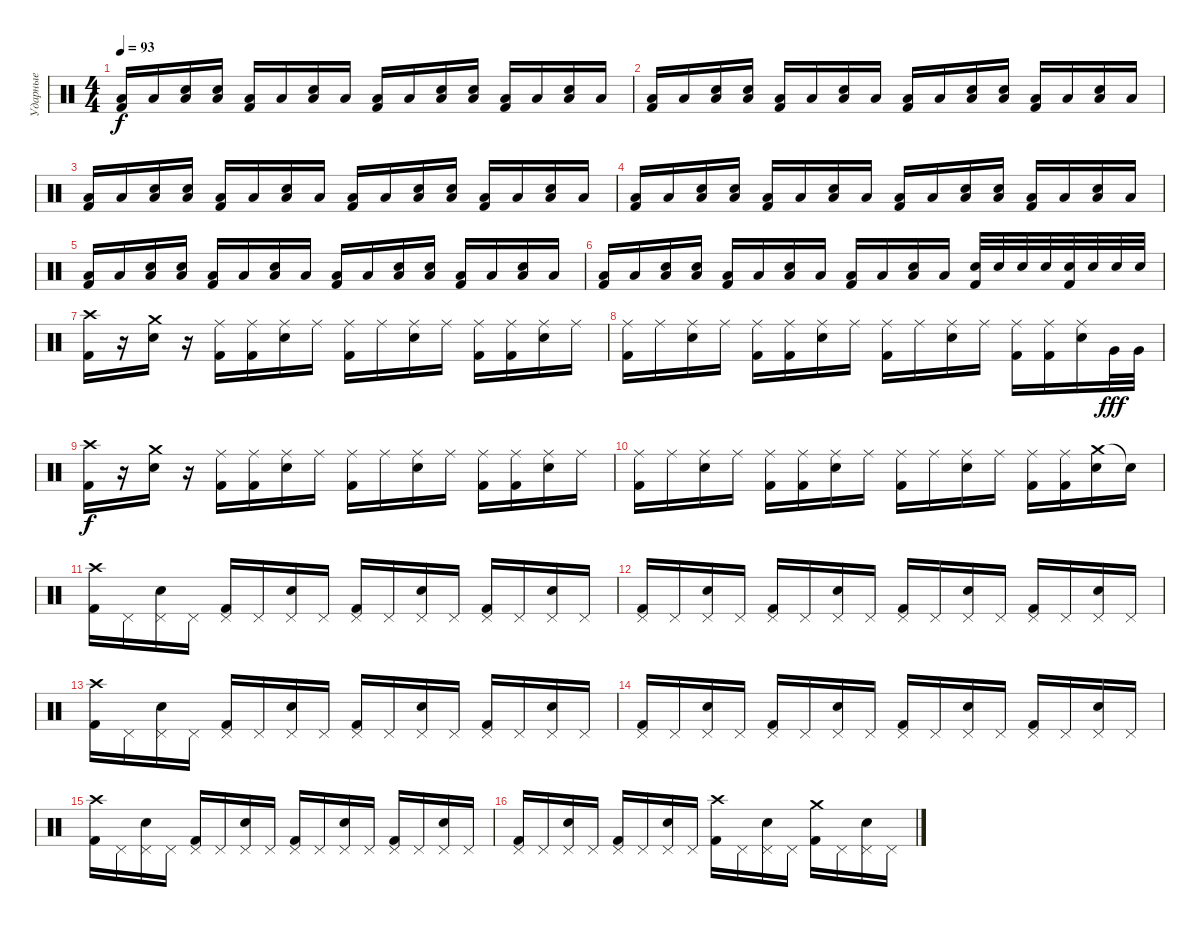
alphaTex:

\track ("Ударные" "Ударные") {instrument percussion}
\staff {score}
\articulation defaults
\ts (4 4)
\tempo 93
\clef neutral
\ks c
("Low Floor Tom (hit)" "Kick (hit) 2").16{dy f} "Low Floor Tom (hit)".16 ("Low Floor Tom (hit)" "Electric Snare (hit)").16 ("Low Floor Tom (hit)" "Electric Snare (hit)").16 ("Low Floor Tom (hit)" "Kick (hit) 2").16 "Low Floor Tom (hit)".16 ("Low Floor Tom (hit)" "Electric Snare (hit)").16 "Low Floor Tom (hit)".16 ("Low Floor Tom (hit)" "Kick (hit) 2").16 "Low Floor Tom (hit)".16 ("Low Floor Tom (hit)" "Electric Snare (hit)").16 ("Low Floor Tom (hit)" "Electric Snare (hit)").16 ("Low Floor Tom (hit)" "Kick (hit) 2").16 "Low Floor Tom (hit)".16 ("Low Floor Tom (hit)" "Electric Snare (hit)").16 "Low Floor Tom (hit)".16 |
("Low Floor Tom (hit)" "Kick (hit) 2").16 "Low Floor Tom (hit)".16 ("Low Floor Tom (hit)" "Electric Snare (hit)").16 ("Low Floor Tom (hit)" "Electric Snare (hit)").16 ("Low Floor Tom (hit)" "Kick (hit) 2").16 "Low Floor Tom (hit)".16 ("Low Floor Tom (hit)" "Electric Snare (hit)").16 "Low Floor Tom (hit)".16 ("Low Floor Tom (hit)" "Kick (hit) 2").16 "Low Floor Tom (hit)".16 ("Low Floor Tom (hit)" "Electric Snare (hit)").16 ("Low Floor Tom (hit)" "Electric Snare (hit)").16 ("Low Floor Tom (hit)" "Kick (hit) 2").16 "Low Floor Tom (hit)".16 ("Low Floor Tom (hit)" "Electric Snare (hit)").16 "Low Floor Tom (hit)".16 |
("Low Floor Tom (hit)" "Kick (hit) 2").16 "Low Floor Tom (hit)".16 ("Low Floor Tom (hit)" "Electric Snare (hit)").16 ("Low Floor Tom (hit)" "Electric Snare (hit)").16 ("Low Floor Tom (hit)" "Kick (hit) 2").16 "Low Floor Tom (hit)".16 ("Low Floor Tom (hit)" "Electric Snare (hit)").16 "Low Floor Tom (hit)".16 ("Low Floor Tom (hit)" "Kick (hit) 2").16 "Low Floor Tom (hit)".16 ("Low Floor Tom (hit)" "Electric Snare (hit)").16 ("Low Floor Tom (hit)" "Electric Snare (hit)").16 ("Low Floor Tom (hit)" "Kick (hit) 2").16 "Low Floor Tom (hit)".16 ("Low Floor Tom (hit)" "Electric Snare (hit)").16 "Low Floor Tom (hit)".16 |
("Low Floor Tom (hit)" "Kick (hit) 2").16 "Low Floor Tom (hit)".16 ("Low Floor Tom (hit)" "Electric Snare (hit)").16 ("Low Floor Tom (hit)" "Electric Snare (hit)").16 ("Low Floor Tom (hit)" "Kick (hit) 2").16 "Low Floor Tom (hit)".16 ("Low Floor Tom (hit)" "Electric Snare (hit)").16 "Low Floor Tom (hit)".16 ("Low Floor Tom (hit)" "Kick (hit) 2").16 "Low Floor Tom (hit)".16 ("Low Floor Tom (hit)" "Electric Snare (hit)").16 ("Low Floor Tom (hit)" "Electric Snare (hit)").16 ("Low Floor Tom (hit)" "Kick (hit) 2").16 "Low Floor Tom (hit)".16 ("Low Floor Tom (hit)" "Electric Snare (hit)").16 "Low Floor Tom (hit)".16 |
("Low Floor Tom (hit)" "Kick (hit) 2").16 "Low Floor Tom (hit)".16 ("Low Floor Tom (hit)" "Electric Snare (hit)").16 ("Low Floor Tom (hit)" "Electric Snare (hit)").16 ("Low Floor Tom (hit)" "Kick (hit) 2").16 "Low Floor Tom (hit)".16 ("Low Floor Tom (hit)" "Electric Snare (hit)").16 "Low Floor Tom (hit)".16 ("Low Floor Tom (hit)" "Kick (hit) 2").16 "Low Floor Tom (hit)".16 ("Low Floor Tom (hit)" "Electric Snare (hit)").16 ("Low Floor Tom (hit)" "Electric Snare (hit)").16 ("Low Floor Tom (hit)" "Kick (hit) 2").16 "Low Floor Tom (hit)".16 ("Low Floor Tom (hit)" "Electric Snare (hit)").16 "Low Floor Tom (hit)".16 |
("Low Floor Tom (hit)" "Kick (hit) 2").16 "Low Floor Tom (hit)".16 ("Low Floor Tom (hit)" "Electric Snare (hit)").16 ("Low Floor Tom (hit)" "Electric Snare (hit)").16 ("Low Floor Tom (hit)" "Kick (hit) 2").16 "Low Floor Tom (hit)".16 ("Low Floor Tom (hit)" "Electric Snare (hit)").16 "Low Floor Tom (hit)".16 ("Low Floor Tom (hit)" "Kick (hit) 2").16 "Low Floor Tom (hit)".16 ("Low Floor Tom (hit)" "Electric Snare (hit)").16 "Low Floor Tom (hit)".16 ("Electric Snare (hit)" "Kick (hit) 2").32 "Electric Snare (hit)".32 "Electric Snare (hit)".32 "Electric Snare (hit)".32 ("Electric Snare (hit)" "Kick (hit) 2").32 "Electric Snare (hit)".32 "Electric Snare (hit)".32 "Electric Snare (hit)".32 |
("Crash high (hit)" "Kick (hit) 2").16 r.16 ("Crash medium (hit)" "Electric Snare (hit)").16 r.16 ("Ride (middle)" "Kick (hit) 2").16 ("Ride (middle)" "Kick (hit) 2").16 ("Ride (middle)" "Electric Snare (hit)").16 "Ride (middle)".16 ("Ride (middle)" "Kick (hit) 2").16 "Ride (middle)".16 ("Ride (middle)" "Electric Snare (hit)").16 "Ride (middle)".16 ("Ride (middle)" "Kick (hit) 2").16 ("Ride (middle)" "Kick (hit) 2").16 ("Ride (middle)" "Electric Snare (hit)").16 "Ride (middle)".16 |
("Ride (middle)" "Kick (hit) 2").16 "Ride (middle)".16 ("Ride (middle)" "Electric Snare (hit)").16 "Ride (middle)".16 ("Ride (middle)" "Kick (hit) 2").16 ("Ride (middle)" "Kick (hit) 2").16 ("Ride (middle)" "Electric Snare (hit)").16 "Ride (middle)".16 ("Ride (middle)" "Kick (hit) 2").16 "Ride (middle)".16 ("Ride (middle)" "Electric Snare (hit)").16 "Ride (middle)".16 ("Ride (middle)" "Kick (hit) 2").16 ("Ride (middle)" "Kick (hit) 2").16 ("Ride (middle)" "Electric Snare (hit)").16 "Very Low Tom (hit)".32{dy fff} "Very Low Tom (hit)".32 |
("Crash high (hit)" "Kick (hit) 2").16{dy f} r.16 ("Crash medium (hit)" "Electric Snare (hit)").16 r.16 ("Ride (middle)" "Kick (hit) 2").16 ("Ride (middle)" "Kick (hit) 2").16 ("Ride (middle)" "Electric Snare (hit)").16 "Ride (middle)".16 ("Ride (middle)" "Kick (hit) 2").16 "Ride (middle)".16 ("Ride (middle)" "Electric Snare (hit)").16 "Ride (middle)".16 ("Ride (middle)" "Kick (hit) 2").16 ("Ride (middle)" "Kick (hit) 2").16 ("Ride (middle)" "Electric Snare (hit)").16 "Ride (middle)".16 |
("Ride (middle)" "Kick (hit) 2").16 "Ride (middle)".16 ("Ride (middle)" "Electric Snare (hit)").16 "Ride (middle)".16 ("Ride (middle)" "Kick (hit) 2").16 ("Ride (middle)" "Kick (hit) 2").16 ("Ride (middle)" "Electric Snare (hit)").16 "Ride (middle)".16 ("Ride (middle)" "Kick (hit) 2").16 "Ride (middle)".16 ("Ride (middle)" "Electric Snare (hit)").16 "Ride (middle)".16 ("Ride (middle)" "Kick (hit) 2").16 ("Ride (middle)" "Kick (hit) 2").16 ("Crash medium (hit)" "Electric Snare (hit)").16 "Snare (hit)"{t}.16 |
("Crash high (hit)" "Kick (hit) 2").16 "Pedal Hi-Hat (hit)".16 ("Pedal Hi-Hat (hit)" "Electric Snare (hit)").16 "Pedal Hi-Hat (hit)".16 ("Pedal Hi-Hat (hit)" "Kick (hit) 2").16 "Pedal Hi-Hat (hit)".16 ("Pedal Hi-Hat (hit)" "Electric Snare (hit)").16 "Pedal Hi-Hat (hit)".16 ("Pedal Hi-Hat (hit)" "Kick (hit) 2").16 "Pedal Hi-Hat (hit)".16 ("Pedal Hi-Hat (hit)" "Electric Snare (hit)").16 "Pedal Hi-Hat (hit)".16 ("Pedal Hi-Hat (hit)" "Kick (hit) 2").16 "Pedal Hi-Hat (hit)".16 ("Pedal Hi-Hat (hit)" "Electric Snare (hit)").16 "Pedal Hi-Hat (hit)".16 |
("Pedal Hi-Hat (hit)" "Kick (hit) 2").16 "Pedal Hi-Hat (hit)".16 ("Pedal Hi-Hat (hit)" "Electric Snare (hit)").16 "Pedal Hi-Hat (hit)".16 ("Pedal Hi-Hat (hit)" "Kick (hit) 2").16 "Pedal Hi-Hat (hit)".16 ("Pedal Hi-Hat (hit)" "Electric Snare (hit)").16 "Pedal Hi-Hat (hit)".16 ("Pedal Hi-Hat (hit)" "Kick (hit) 2").16 "Pedal Hi-Hat (hit)".16 ("Pedal Hi-Hat (hit)" "Electric Snare (hit)").16 "Pedal Hi-Hat (hit)".16 ("Pedal Hi-Hat (hit)" "Kick (hit) 2").16 "Pedal Hi-Hat (hit)".16 ("Pedal Hi-Hat (hit)" "Electric Snare (hit)").16 "Pedal Hi-Hat (hit)".16 |
("Crash high (hit)" "Kick (hit) 2").16 "Pedal Hi-Hat (hit)".16 ("Pedal Hi-Hat (hit)" "Electric Snare (hit)").16 "Pedal Hi-Hat (hit)".16 ("Pedal Hi-Hat (hit)" "Kick (hit) 2").16 "Pedal Hi-Hat (hit)".16 ("Pedal Hi-Hat (hit)" "Electric Snare (hit)").16 "Pedal Hi-Hat (hit)".16 ("Pedal Hi-Hat (hit)" "Kick (hit) 2").16 "Pedal Hi-Hat (hit)".16 ("Pedal Hi-Hat (hit)" "Electric Snare (hit)").16 "Pedal Hi-Hat (hit)".16 ("Pedal Hi-Hat (hit)" "Kick (hit) 2").16 "Pedal Hi-Hat (hit)".16 ("Pedal Hi-Hat (hit)" "Electric Snare (hit)").16 "Pedal Hi-Hat (hit)".16 |
("Pedal Hi-Hat (hit)" "Kick (hit) 2").16 "Pedal Hi-Hat (hit)".16 ("Pedal Hi-Hat (hit)" "Electric Snare (hit)").16 "Pedal Hi-Hat (hit)".16 ("Pedal Hi-Hat (hit)" "Kick (hit) 2").16 "Pedal Hi-Hat (hit)".16 ("Pedal Hi-Hat (hit)" "Electric Snare (hit)").16 "Pedal Hi-Hat (hit)".16 ("Pedal Hi-Hat (hit)" "Kick (hit) 2").16 "Pedal Hi-Hat (hit)".16 ("Pedal Hi-Hat (hit)" "Electric Snare (hit)").16 "Pedal Hi-Hat (hit)".16 ("Pedal Hi-Hat (hit)" "Kick (hit) 2").16 "Pedal Hi-Hat (hit)".16 ("Pedal Hi-Hat (hit)" "Electric Snare (hit)").16 "Pedal Hi-Hat (hit)".16 |
("Crash high (hit)" "Kick (hit) 2").16 "Pedal Hi-Hat (hit)".16 ("Pedal Hi-Hat (hit)" "Electric Snare (hit)").16 "Pedal Hi-Hat (hit)".16 ("Pedal Hi-Hat (hit)" "Kick (hit) 2").16 "Pedal Hi-Hat (hit)".16 ("Pedal Hi-Hat (hit)" "Electric Snare (hit)").16 "Pedal Hi-Hat (hit)".16 ("Pedal Hi-Hat (hit)" "Kick (hit) 2").16 "Pedal Hi-Hat (hit)".16 ("Pedal Hi-Hat (hit)" "Electric Snare (hit)").16 "Pedal Hi-Hat (hit)".16 ("Pedal Hi-Hat (hit)" "Kick (hit) 2").16 "Pedal Hi-Hat (hit)".16 ("Pedal Hi-Hat (hit)" "Electric Snare (hit)").16 "Pedal Hi-Hat (hit)".16 |
("Pedal Hi-Hat (hit)" "Kick (hit) 2").16 "Pedal Hi-Hat (hit)".16 ("Pedal Hi-Hat (hit)" "Electric Snare (hit)").16 "Pedal Hi-Hat (hit)".16 ("Pedal Hi-Hat (hit)" "Kick (hit) 2").16 "Pedal Hi-Hat (hit)".16 ("Pedal Hi-Hat (hit)" "Electric Snare (hit)").16 "Pedal Hi-Hat (hit)".16 ("Crash high (hit)" "Kick (hit) 2").16 "Pedal Hi-Hat (hit)".16 ("Pedal Hi-Hat (hit)" "Electric Snare (hit)").16 "Pedal Hi-Hat (hit)".16 ("Crash medium (hit)" "Kick (hit) 2").16 "Pedal Hi-Hat (hit)".16 ("Pedal Hi-Hat (hit)" "Electric Snare (hit)").16 "Pedal Hi-Hat (hit)".16
